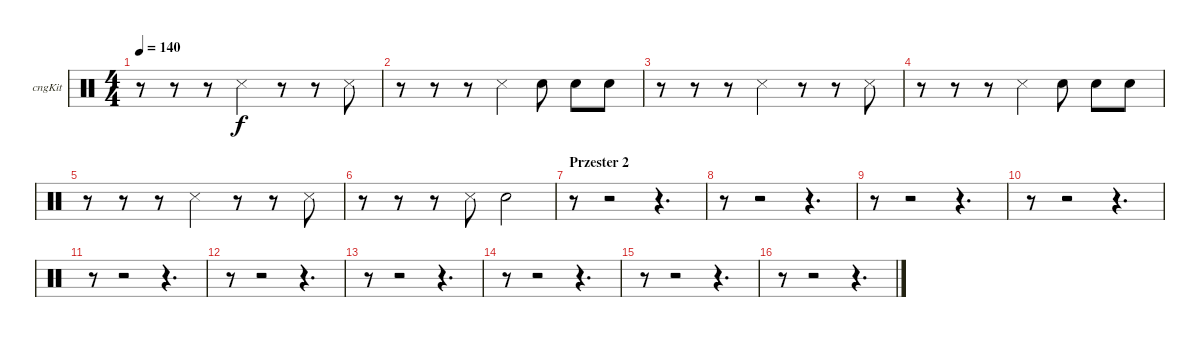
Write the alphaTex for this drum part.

\bracketExtendMode groupsimilarinstruments
\firstSystemTrackNameOrientation horizontal
\otherSystemsTrackNameOrientation horizontal
\track ("Congas" "cngKit") {instrument percussion}
\staff {score}
\articulation defaults
\ts (4 4)
\tempo 140
\clef neutral
\ks c
r.8{dy f} r.8 r.8 "Snare (side stick) 3".4 r.8 r.8 "Snare (side stick) 3".8 |
r.8 r.8 r.8 "Snare (side stick) 3".4 "Snare (hit) 2".8 "Snare (hit) 2".8 "Snare (hit) 2".8 |
r.8 r.8 r.8 "Snare (side stick) 3".4 r.8 r.8 "Snare (side stick) 3".8 |
r.8 r.8 r.8 "Snare (side stick) 3".4 "Snare (hit) 2".8 "Snare (hit) 2".8 "Snare (hit) 2".8 |
r.8 r.8 r.8 "Snare (side stick) 3".4 r.8 r.8 "Snare (side stick) 3".8 |
r.8 r.8 r.8 "Snare (side stick) 3".8 "Snare (hit) 2".2 |
\section ("" "Przester 2")
r.8 r.2 r.4{d} |
r.8 r.2 r.4{d} |
r.8 r.2 r.4{d} |
r.8 r.2 r.4{d} |
r.8 r.2 r.4{d} |
r.8 r.2 r.4{d} |
r.8 r.2 r.4{d} |
r.8 r.2 r.4{d} |
r.8 r.2 r.4{d} |
r.8 r.2 r.4{d}
